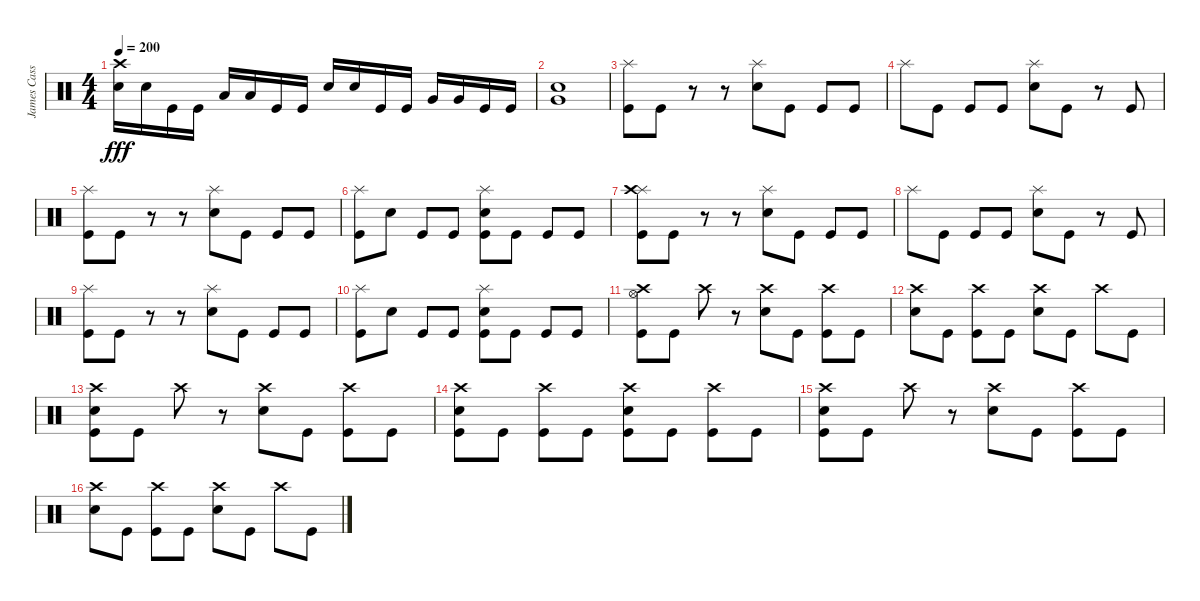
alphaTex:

\track ("James Cassells" "James Cass") {instrument percussion}
\staff {score}
\articulation defaults
\ts (4 4)
\tempo 200
\clef neutral
\ks c
("Crash high (hit)" "Electric Snare (hit)").16{dy fff} "Electric Snare (hit)".16 "Kick (hit)".16 "Kick (hit)".16 "Low Tom (hit)".16 "Low Tom (hit)".16 "Kick (hit)".16 "Kick (hit)".16 "Electric Snare (hit)".16 "Electric Snare (hit)".16 "Kick (hit)".16 "Kick (hit)".16 "Very Low Tom (hit)".16 "Very Low Tom (hit)".16 "Kick (hit)".16 "Kick (hit)".16 |
("Very Low Tom (hit)" "Electric Snare (hit)").1 |
("Splash (hit)" "Kick (hit)").8 "Kick (hit)".8 r.8 r.8 ("Splash (hit)" "Electric Snare (hit)").8 "Kick (hit)".8 "Kick (hit)".8 "Kick (hit)".8 |
"Splash (hit)".8 "Kick (hit)".8 "Kick (hit)".8 "Kick (hit)".8 ("Splash (hit)" "Electric Snare (hit)").8 "Kick (hit)".8 r.8 "Kick (hit)".8 |
("Splash (hit)" "Kick (hit)").8 "Kick (hit)".8 r.8 r.8 ("Splash (hit)" "Electric Snare (hit)").8 "Kick (hit)".8 "Kick (hit)".8 "Kick (hit)".8 |
("Splash (hit)" "Kick (hit)").8 "Electric Snare (hit)".8 "Kick (hit)".8 "Kick (hit)".8 ("Splash (hit)" "Electric Snare (hit)" "Kick (hit)").8 "Kick (hit)".8 "Kick (hit)".8 "Kick (hit)".8 |
("Splash (hit)" "Crash high (hit)" "Kick (hit)").8 "Kick (hit)".8 r.8 r.8 ("Splash (hit)" "Electric Snare (hit)").8 "Kick (hit)".8 "Kick (hit)".8 "Kick (hit)".8 |
"Splash (hit)".8 "Kick (hit)".8 "Kick (hit)".8 "Kick (hit)".8 ("Splash (hit)" "Electric Snare (hit)").8 "Kick (hit)".8 r.8 "Kick (hit)".8 |
("Splash (hit)" "Kick (hit)").8 "Kick (hit)".8 r.8 r.8 ("Splash (hit)" "Electric Snare (hit)").8 "Kick (hit)".8 "Kick (hit)".8 "Kick (hit)".8 |
("Splash (hit)" "Kick (hit)").8 "Electric Snare (hit)".8 "Kick (hit)".8 "Kick (hit)".8 ("Splash (hit)" "Electric Snare (hit)" "Kick (hit)").8 "Kick (hit)".8 "Kick (hit)".8 "Kick (hit)".8 |
("Crash high (hit)" "Hi-Hat (open)" "Kick (hit)").8 "Kick (hit)".8 "Crash high (hit)".8 r.8 ("Crash high (hit)" "Electric Snare (hit)").8 "Kick (hit)".8 ("Crash high (hit)" "Kick (hit)").8 "Kick (hit)".8 |
("Crash high (hit)" "Electric Snare (hit)").8 "Kick (hit)".8 ("Crash high (hit)" "Kick (hit)").8 "Kick (hit)".8 ("Crash high (hit)" "Electric Snare (hit)").8 "Kick (hit)".8 "Crash high (hit)".8 "Kick (hit)".8 |
("Crash high (hit)" "Electric Snare (hit)" "Kick (hit)").8 "Kick (hit)".8 "Crash high (hit)".8 r.8 ("Crash high (hit)" "Electric Snare (hit)").8 "Kick (hit)".8 ("Crash high (hit)" "Kick (hit)").8 "Kick (hit)".8 |
("Crash high (hit)" "Electric Snare (hit)" "Kick (hit)").8 "Kick (hit)".8 ("Crash high (hit)" "Kick (hit)").8 "Kick (hit)".8 ("Crash high (hit)" "Electric Snare (hit)" "Kick (hit)").8 "Kick (hit)".8 ("Crash high (hit)" "Kick (hit)").8 "Kick (hit)".8 |
("Crash high (hit)" "Electric Snare (hit)" "Kick (hit)").8 "Kick (hit)".8 "Crash high (hit)".8 r.8 ("Crash high (hit)" "Electric Snare (hit)").8 "Kick (hit)".8 ("Crash high (hit)" "Kick (hit)").8 "Kick (hit)".8 |
("Crash high (hit)" "Electric Snare (hit)").8 "Kick (hit)".8 ("Crash high (hit)" "Kick (hit)").8 "Kick (hit)".8 ("Crash high (hit)" "Electric Snare (hit)").8 "Kick (hit)".8 "Crash high (hit)".8 "Kick (hit)".8
